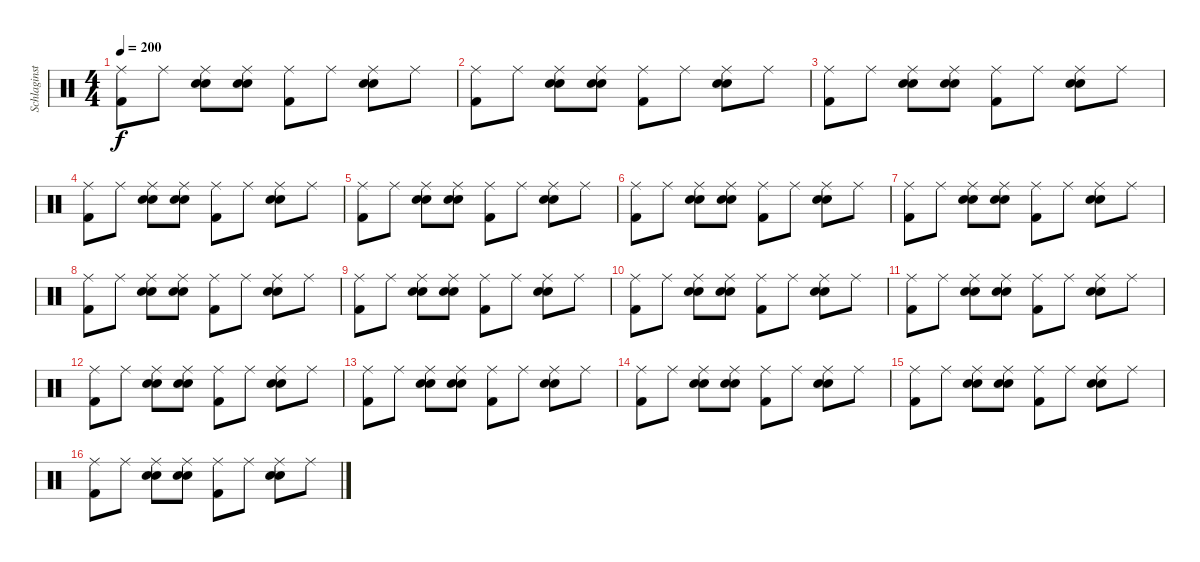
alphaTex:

\track ("Schlaginstrumente - Auswahl" "Schlaginst") {instrument percussion}
\staff {score}
\articulation defaults
\ts (4 4)
\tempo 200
\clef neutral
\ks c
("Kick (hit) 2" "Ride (middle)").8{dy f} "Ride (middle)".8 ("Hand Clap (hit)" "Electric Snare (hit)" "Ride (middle)").8 ("Hand Clap (hit)" "Electric Snare (hit)" "Ride (middle)").8 ("Kick (hit) 2" "Ride (middle)").8 "Ride (middle)".8 ("Hand Clap (hit)" "Electric Snare (hit)" "Ride (middle)").8 "Ride (middle)".8 |
("Kick (hit) 2" "Ride (middle)").8 "Ride (middle)".8 ("Hand Clap (hit)" "Electric Snare (hit)" "Ride (middle)").8 ("Hand Clap (hit)" "Electric Snare (hit)" "Ride (middle)").8 ("Kick (hit) 2" "Ride (middle)").8 "Ride (middle)".8 ("Hand Clap (hit)" "Electric Snare (hit)" "Ride (middle)").8 "Ride (middle)".8 |
("Kick (hit) 2" "Ride (middle)").8 "Ride (middle)".8 ("Hand Clap (hit)" "Electric Snare (hit)" "Ride (middle)").8 ("Hand Clap (hit)" "Electric Snare (hit)" "Ride (middle)").8 ("Kick (hit) 2" "Ride (middle)").8 "Ride (middle)".8 ("Hand Clap (hit)" "Electric Snare (hit)" "Ride (middle)").8 "Ride (middle)".8 |
("Kick (hit) 2" "Ride (middle)").8 "Ride (middle)".8 ("Hand Clap (hit)" "Electric Snare (hit)" "Ride (middle)").8 ("Hand Clap (hit)" "Electric Snare (hit)" "Ride (middle)").8 ("Kick (hit) 2" "Ride (middle)").8 "Ride (middle)".8 ("Hand Clap (hit)" "Electric Snare (hit)" "Ride (middle)").8 "Ride (middle)".8 |
("Kick (hit) 2" "Ride (middle)").8 "Ride (middle)".8 ("Hand Clap (hit)" "Electric Snare (hit)" "Ride (middle)").8 ("Hand Clap (hit)" "Electric Snare (hit)" "Ride (middle)").8 ("Kick (hit) 2" "Ride (middle)").8 "Ride (middle)".8 ("Hand Clap (hit)" "Electric Snare (hit)" "Ride (middle)").8 "Ride (middle)".8 |
("Kick (hit) 2" "Ride (middle)").8 "Ride (middle)".8 ("Hand Clap (hit)" "Electric Snare (hit)" "Ride (middle)").8 ("Hand Clap (hit)" "Electric Snare (hit)" "Ride (middle)").8 ("Kick (hit) 2" "Ride (middle)").8 "Ride (middle)".8 ("Hand Clap (hit)" "Electric Snare (hit)" "Ride (middle)").8 "Ride (middle)".8 |
("Kick (hit) 2" "Ride (middle)").8 "Ride (middle)".8 ("Hand Clap (hit)" "Electric Snare (hit)" "Ride (middle)").8 ("Hand Clap (hit)" "Electric Snare (hit)" "Ride (middle)").8 ("Kick (hit) 2" "Ride (middle)").8 "Ride (middle)".8 ("Hand Clap (hit)" "Electric Snare (hit)" "Ride (middle)").8 "Ride (middle)".8 |
("Kick (hit) 2" "Ride (middle)").8 "Ride (middle)".8 ("Hand Clap (hit)" "Electric Snare (hit)" "Ride (middle)").8 ("Hand Clap (hit)" "Electric Snare (hit)" "Ride (middle)").8 ("Kick (hit) 2" "Ride (middle)").8 "Ride (middle)".8 ("Hand Clap (hit)" "Electric Snare (hit)" "Ride (middle)").8 "Ride (middle)".8 |
("Kick (hit) 2" "Ride (middle)").8 "Ride (middle)".8 ("Hand Clap (hit)" "Electric Snare (hit)" "Ride (middle)").8 ("Hand Clap (hit)" "Electric Snare (hit)" "Ride (middle)").8 ("Kick (hit) 2" "Ride (middle)").8 "Ride (middle)".8 ("Hand Clap (hit)" "Electric Snare (hit)" "Ride (middle)").8 "Ride (middle)".8 |
("Kick (hit) 2" "Ride (middle)").8 "Ride (middle)".8 ("Hand Clap (hit)" "Electric Snare (hit)" "Ride (middle)").8 ("Hand Clap (hit)" "Electric Snare (hit)" "Ride (middle)").8 ("Kick (hit) 2" "Ride (middle)").8 "Ride (middle)".8 ("Hand Clap (hit)" "Electric Snare (hit)" "Ride (middle)").8 "Ride (middle)".8 |
("Kick (hit) 2" "Ride (middle)").8 "Ride (middle)".8 ("Hand Clap (hit)" "Electric Snare (hit)" "Ride (middle)").8 ("Hand Clap (hit)" "Electric Snare (hit)" "Ride (middle)").8 ("Kick (hit) 2" "Ride (middle)").8 "Ride (middle)".8 ("Hand Clap (hit)" "Electric Snare (hit)" "Ride (middle)").8 "Ride (middle)".8 |
("Kick (hit) 2" "Ride (middle)").8 "Ride (middle)".8 ("Hand Clap (hit)" "Electric Snare (hit)" "Ride (middle)").8 ("Hand Clap (hit)" "Electric Snare (hit)" "Ride (middle)").8 ("Kick (hit) 2" "Ride (middle)").8 "Ride (middle)".8 ("Hand Clap (hit)" "Electric Snare (hit)" "Ride (middle)").8 "Ride (middle)".8 |
("Kick (hit) 2" "Ride (middle)").8 "Ride (middle)".8 ("Hand Clap (hit)" "Electric Snare (hit)" "Ride (middle)").8 ("Hand Clap (hit)" "Electric Snare (hit)" "Ride (middle)").8 ("Kick (hit) 2" "Ride (middle)").8 "Ride (middle)".8 ("Hand Clap (hit)" "Electric Snare (hit)" "Ride (middle)").8 "Ride (middle)".8 |
("Kick (hit) 2" "Ride (middle)").8 "Ride (middle)".8 ("Hand Clap (hit)" "Electric Snare (hit)" "Ride (middle)").8 ("Hand Clap (hit)" "Electric Snare (hit)" "Ride (middle)").8 ("Kick (hit) 2" "Ride (middle)").8 "Ride (middle)".8 ("Hand Clap (hit)" "Electric Snare (hit)" "Ride (middle)").8 "Ride (middle)".8 |
("Kick (hit) 2" "Ride (middle)").8 "Ride (middle)".8 ("Hand Clap (hit)" "Electric Snare (hit)" "Ride (middle)").8 ("Hand Clap (hit)" "Electric Snare (hit)" "Ride (middle)").8 ("Kick (hit) 2" "Ride (middle)").8 "Ride (middle)".8 ("Hand Clap (hit)" "Electric Snare (hit)" "Ride (middle)").8 "Ride (middle)".8 |
("Kick (hit) 2" "Ride (middle)").8 "Ride (middle)".8 ("Hand Clap (hit)" "Electric Snare (hit)" "Ride (middle)").8 ("Hand Clap (hit)" "Electric Snare (hit)" "Ride (middle)").8 ("Kick (hit) 2" "Ride (middle)").8 "Ride (middle)".8 ("Hand Clap (hit)" "Electric Snare (hit)" "Ride (middle)").8 "Ride (middle)".8
